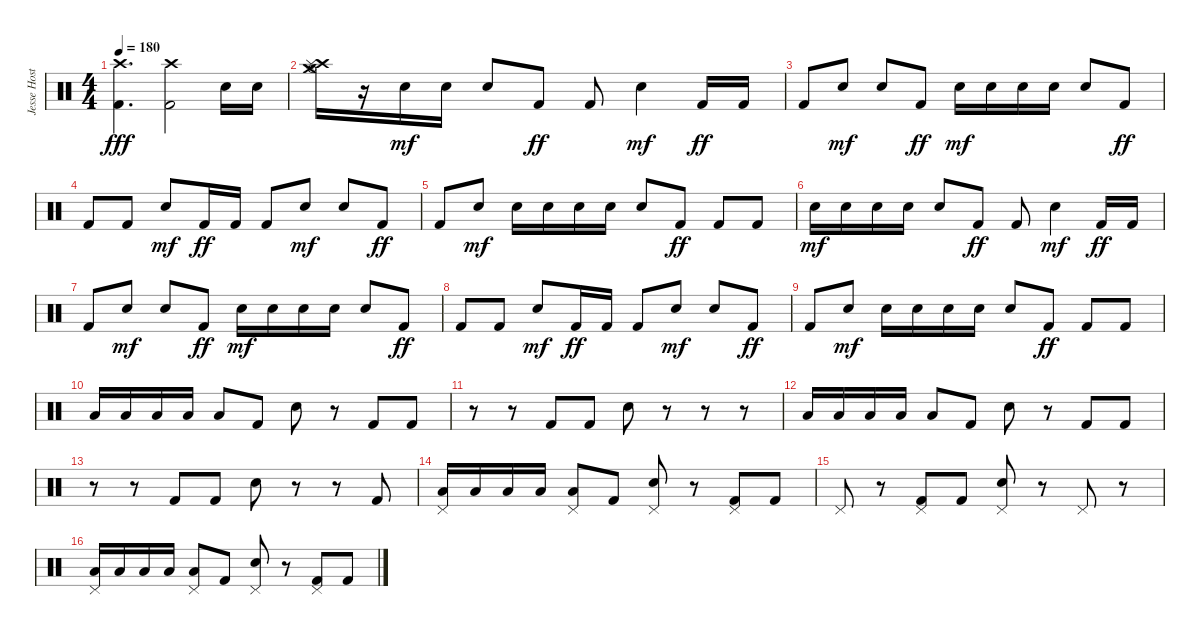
\track ("Jesse Hostetler" "Jesse Host") {instrument percussion}
\staff {score}
\articulation defaults
\ts (4 4)
\tempo 180
\clef neutral
\ks c
("Crash high (hit)" "Kick (hit) 2").4{d dy fff} ("Crash high (hit)" "Kick (hit) 2").2 "Electric Snare (hit)".16 "Electric Snare (hit)".16 |
("Crash high (hit)" "Hi-Hat (open)" "Splash (hit)" "Crash medium (hit)").16 r.16 "Electric Snare (hit)".16{dy mf} "Electric Snare (hit)".16 "Electric Snare (hit)".8 "Kick (hit) 2".8{dy ff} "Kick (hit) 2".8 "Electric Snare (hit)".4{dy mf} "Kick (hit) 2".16{dy ff} "Kick (hit) 2".16 |
"Kick (hit) 2".8 "Electric Snare (hit)".8{dy mf} "Electric Snare (hit)".8 "Kick (hit) 2".8{dy ff} "Electric Snare (hit)".16{dy mf} "Electric Snare (hit)".16 "Electric Snare (hit)".16 "Electric Snare (hit)".16 "Electric Snare (hit)".8 "Kick (hit) 2".8{dy ff} |
"Kick (hit) 2".8 "Kick (hit) 2".8 "Electric Snare (hit)".8{dy mf} "Kick (hit) 2".16{dy ff} "Kick (hit) 2".16 "Kick (hit) 2".8 "Electric Snare (hit)".8{dy mf} "Electric Snare (hit)".8 "Kick (hit) 2".8{dy ff} |
"Kick (hit) 2".8 "Electric Snare (hit)".8{dy mf} "Electric Snare (hit)".16 "Electric Snare (hit)".16 "Electric Snare (hit)".16 "Electric Snare (hit)".16 "Electric Snare (hit)".8 "Kick (hit) 2".8{dy ff} "Kick (hit) 2".8 "Kick (hit) 2".8 |
"Electric Snare (hit)".16{dy mf} "Electric Snare (hit)".16 "Electric Snare (hit)".16 "Electric Snare (hit)".16 "Electric Snare (hit)".8 "Kick (hit) 2".8{dy ff} "Kick (hit) 2".8 "Electric Snare (hit)".4{dy mf} "Kick (hit) 2".16{dy ff} "Kick (hit) 2".16 |
"Kick (hit) 2".8 "Electric Snare (hit)".8{dy mf} "Electric Snare (hit)".8 "Kick (hit) 2".8{dy ff} "Electric Snare (hit)".16{dy mf} "Electric Snare (hit)".16 "Electric Snare (hit)".16 "Electric Snare (hit)".16 "Electric Snare (hit)".8 "Kick (hit) 2".8{dy ff} |
"Kick (hit) 2".8 "Kick (hit) 2".8 "Electric Snare (hit)".8{dy mf} "Kick (hit) 2".16{dy ff} "Kick (hit) 2".16 "Kick (hit) 2".8 "Electric Snare (hit)".8{dy mf} "Electric Snare (hit)".8 "Kick (hit) 2".8{dy ff} |
"Kick (hit) 2".8 "Electric Snare (hit)".8{dy mf} "Electric Snare (hit)".16 "Electric Snare (hit)".16 "Electric Snare (hit)".16 "Electric Snare (hit)".16 "Electric Snare (hit)".8 "Kick (hit) 2".8{dy ff} "Kick (hit) 2".8 "Kick (hit) 2".8 |
"Low Floor Tom (hit)".16 "Low Floor Tom (hit)".16 "Low Floor Tom (hit)".16 "Low Floor Tom (hit)".16 "Low Floor Tom (hit)".8 "Kick (hit) 2".8 "Electric Snare (hit)".8 r.8 "Kick (hit) 2".8 "Kick (hit) 2".8 |
r.8 r.8 "Kick (hit) 2".8 "Kick (hit) 2".8 "Electric Snare (hit)".8 r.8 r.8 r.8 |
"Low Floor Tom (hit)".16 "Low Floor Tom (hit)".16 "Low Floor Tom (hit)".16 "Low Floor Tom (hit)".16 "Low Floor Tom (hit)".8 "Kick (hit) 2".8 "Electric Snare (hit)".8 r.8 "Kick (hit) 2".8 "Kick (hit) 2".8 |
r.8 r.8 "Kick (hit) 2".8 "Kick (hit) 2".8 "Electric Snare (hit)".8 r.8 r.8 "Kick (hit) 2".8 |
("Pedal Hi-Hat (hit)" "Low Floor Tom (hit)").16 "Low Floor Tom (hit)".16 "Low Floor Tom (hit)".16 "Low Floor Tom (hit)".16 ("Pedal Hi-Hat (hit)" "Low Floor Tom (hit)").8 "Kick (hit) 2".8 ("Pedal Hi-Hat (hit)" "Electric Snare (hit)").8 r.8 ("Pedal Hi-Hat (hit)" "Kick (hit) 2").8 "Kick (hit) 2".8 |
"Pedal Hi-Hat (hit)".8 r.8 ("Pedal Hi-Hat (hit)" "Kick (hit) 2").8 "Kick (hit) 2".8 ("Pedal Hi-Hat (hit)" "Electric Snare (hit)").8 r.8 "Pedal Hi-Hat (hit)".8 r.8 |
("Pedal Hi-Hat (hit)" "Low Floor Tom (hit)").16 "Low Floor Tom (hit)".16 "Low Floor Tom (hit)".16 "Low Floor Tom (hit)".16 ("Pedal Hi-Hat (hit)" "Low Floor Tom (hit)").8 "Kick (hit) 2".8 ("Pedal Hi-Hat (hit)" "Electric Snare (hit)").8 r.8 ("Pedal Hi-Hat (hit)" "Kick (hit) 2").8 "Kick (hit) 2".8
